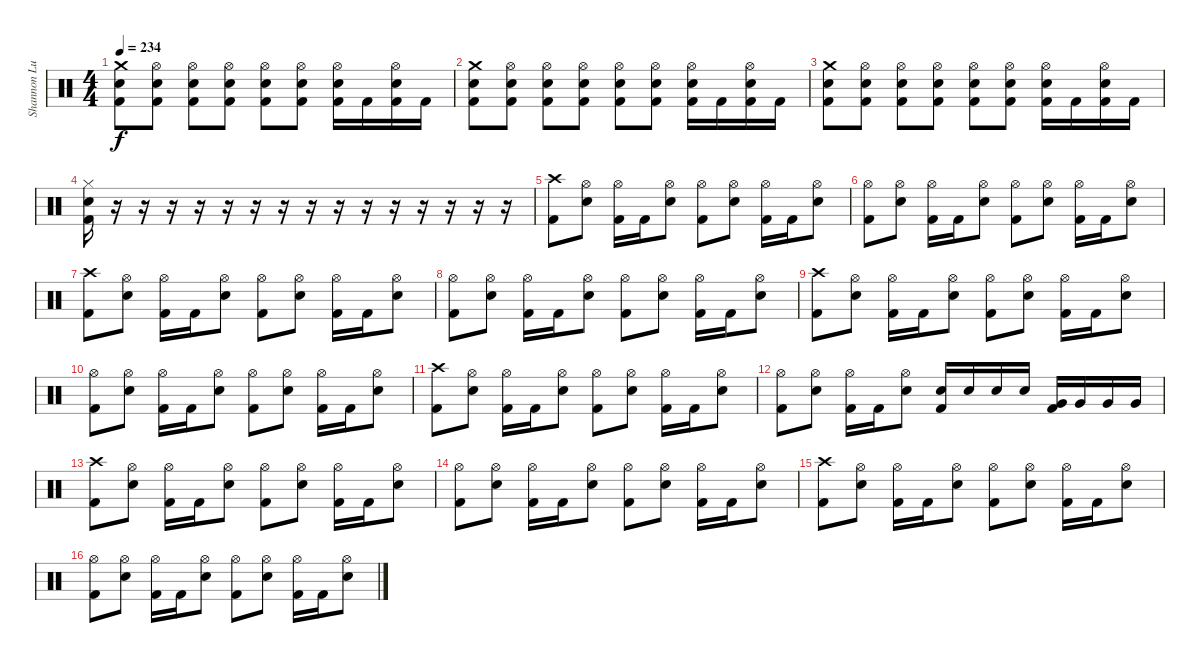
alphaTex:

\track ("Shannon Lucas (Drums)" "Shannon Lu") {instrument percussion}
\staff {score}
\articulation defaults
\ts (4 4)
\tempo 234
\clef neutral
\ks c
("Crash medium (hit)" "Electric Snare (hit)" "Kick (hit) 2").8{dy f} ("Hi-Hat (open)" "Electric Snare (hit)" "Kick (hit) 2").8 ("Hi-Hat (open)" "Electric Snare (hit)" "Kick (hit) 2").8 ("Hi-Hat (open)" "Electric Snare (hit)" "Kick (hit) 2").8 ("Hi-Hat (open)" "Electric Snare (hit)" "Kick (hit) 2").8 ("Hi-Hat (open)" "Electric Snare (hit)" "Kick (hit) 2").8 ("Hi-Hat (open)" "Electric Snare (hit)" "Kick (hit) 2").16 "Kick (hit) 2".16 ("Hi-Hat (open)" "Electric Snare (hit)" "Kick (hit) 2").16 "Kick (hit) 2".16 |
("Crash medium (hit)" "Electric Snare (hit)" "Kick (hit) 2").8 ("Hi-Hat (open)" "Electric Snare (hit)" "Kick (hit) 2").8 ("Hi-Hat (open)" "Electric Snare (hit)" "Kick (hit) 2").8 ("Hi-Hat (open)" "Electric Snare (hit)" "Kick (hit) 2").8 ("Hi-Hat (open)" "Electric Snare (hit)" "Kick (hit) 2").8 ("Hi-Hat (open)" "Electric Snare (hit)" "Kick (hit) 2").8 ("Hi-Hat (open)" "Electric Snare (hit)" "Kick (hit) 2").16 "Kick (hit) 2".16 ("Hi-Hat (open)" "Electric Snare (hit)" "Kick (hit) 2").16 "Kick (hit) 2".16 |
("Crash medium (hit)" "Electric Snare (hit)" "Kick (hit) 2").8 ("Hi-Hat (open)" "Electric Snare (hit)" "Kick (hit) 2").8 ("Hi-Hat (open)" "Electric Snare (hit)" "Kick (hit) 2").8 ("Hi-Hat (open)" "Electric Snare (hit)" "Kick (hit) 2").8 ("Hi-Hat (open)" "Electric Snare (hit)" "Kick (hit) 2").8 ("Hi-Hat (open)" "Electric Snare (hit)" "Kick (hit) 2").8 ("Hi-Hat (open)" "Electric Snare (hit)" "Kick (hit) 2").16 "Kick (hit) 2".16 ("Hi-Hat (open)" "Electric Snare (hit)" "Kick (hit) 2").16 "Kick (hit) 2".16 |
("Hi-Hat (closed)" "Electric Snare (hit)" "Kick (hit) 2").16 r.16 r.16 r.16 r.16 r.16 r.16 r.16 r.16 r.16 r.16 r.16 r.16 r.16 r.16 r.16 |
("Crash high (hit)" "Kick (hit) 2").8 ("Hi-Hat (open)" "Electric Snare (hit)").8 ("Hi-Hat (open)" "Kick (hit) 2").16 "Kick (hit) 2".16 ("Hi-Hat (open)" "Electric Snare (hit)").8 ("Hi-Hat (open)" "Kick (hit) 2").8 ("Hi-Hat (open)" "Electric Snare (hit)").8 ("Hi-Hat (open)" "Kick (hit) 2").16 "Kick (hit) 2".16 ("Hi-Hat (open)" "Electric Snare (hit)").8 |
("Hi-Hat (open)" "Kick (hit) 2").8 ("Hi-Hat (open)" "Electric Snare (hit)").8 ("Hi-Hat (open)" "Kick (hit) 2").16 "Kick (hit) 2".16 ("Hi-Hat (open)" "Electric Snare (hit)").8 ("Hi-Hat (open)" "Kick (hit) 2").8 ("Hi-Hat (open)" "Electric Snare (hit)").8 ("Hi-Hat (open)" "Kick (hit) 2").16 "Kick (hit) 2".16 ("Hi-Hat (open)" "Electric Snare (hit)").8 |
("Crash high (hit)" "Kick (hit) 2").8 ("Hi-Hat (open)" "Electric Snare (hit)").8 ("Hi-Hat (open)" "Kick (hit) 2").16 "Kick (hit) 2".16 ("Hi-Hat (open)" "Electric Snare (hit)").8 ("Hi-Hat (open)" "Kick (hit) 2").8 ("Hi-Hat (open)" "Electric Snare (hit)").8 ("Hi-Hat (open)" "Kick (hit) 2").16 "Kick (hit) 2".16 ("Hi-Hat (open)" "Electric Snare (hit)").8 |
("Hi-Hat (open)" "Kick (hit) 2").8 ("Hi-Hat (open)" "Electric Snare (hit)").8 ("Hi-Hat (open)" "Kick (hit) 2").16 "Kick (hit) 2".16 ("Hi-Hat (open)" "Electric Snare (hit)").8 ("Hi-Hat (open)" "Kick (hit) 2").8 ("Hi-Hat (open)" "Electric Snare (hit)").8 ("Hi-Hat (open)" "Kick (hit) 2").16 "Kick (hit) 2".16 ("Hi-Hat (open)" "Electric Snare (hit)").8 |
("Crash high (hit)" "Kick (hit) 2").8 ("Hi-Hat (open)" "Electric Snare (hit)").8 ("Hi-Hat (open)" "Kick (hit) 2").16 "Kick (hit) 2".16 ("Hi-Hat (open)" "Electric Snare (hit)").8 ("Hi-Hat (open)" "Kick (hit) 2").8 ("Hi-Hat (open)" "Electric Snare (hit)").8 ("Hi-Hat (open)" "Kick (hit) 2").16 "Kick (hit) 2".16 ("Hi-Hat (open)" "Electric Snare (hit)").8 |
("Hi-Hat (open)" "Kick (hit) 2").8 ("Hi-Hat (open)" "Electric Snare (hit)").8 ("Hi-Hat (open)" "Kick (hit) 2").16 "Kick (hit) 2".16 ("Hi-Hat (open)" "Electric Snare (hit)").8 ("Hi-Hat (open)" "Kick (hit) 2").8 ("Hi-Hat (open)" "Electric Snare (hit)").8 ("Hi-Hat (open)" "Kick (hit) 2").16 "Kick (hit) 2".16 ("Hi-Hat (open)" "Electric Snare (hit)").8 |
("Crash high (hit)" "Kick (hit) 2").8 ("Hi-Hat (open)" "Electric Snare (hit)").8 ("Hi-Hat (open)" "Kick (hit) 2").16 "Kick (hit) 2".16 ("Hi-Hat (open)" "Electric Snare (hit)").8 ("Hi-Hat (open)" "Kick (hit) 2").8 ("Hi-Hat (open)" "Electric Snare (hit)").8 ("Hi-Hat (open)" "Kick (hit) 2").16 "Kick (hit) 2".16 ("Hi-Hat (open)" "Electric Snare (hit)").8 |
("Hi-Hat (open)" "Kick (hit) 2").8 ("Hi-Hat (open)" "Electric Snare (hit)").8 ("Hi-Hat (open)" "Kick (hit) 2").16 "Kick (hit) 2".16 ("Hi-Hat (open)" "Electric Snare (hit)").8 ("Electric Snare (hit)" "Kick (hit) 2").16 "Electric Snare (hit)".16 "Electric Snare (hit)".16 "Electric Snare (hit)".16 ("Very Low Tom (hit)" "Kick (hit) 2").16 "Very Low Tom (hit)".16 "Very Low Tom (hit)".16 "Very Low Tom (hit)".16 |
("Crash high (hit)" "Kick (hit) 2").8 ("Hi-Hat (open)" "Electric Snare (hit)").8 ("Hi-Hat (open)" "Kick (hit) 2").16 "Kick (hit) 2".16 ("Hi-Hat (open)" "Electric Snare (hit)").8 ("Hi-Hat (open)" "Kick (hit) 2").8 ("Hi-Hat (open)" "Electric Snare (hit)").8 ("Hi-Hat (open)" "Kick (hit) 2").16 "Kick (hit) 2".16 ("Hi-Hat (open)" "Electric Snare (hit)").8 |
("Hi-Hat (open)" "Kick (hit) 2").8 ("Hi-Hat (open)" "Electric Snare (hit)").8 ("Hi-Hat (open)" "Kick (hit) 2").16 "Kick (hit) 2".16 ("Hi-Hat (open)" "Electric Snare (hit)").8 ("Hi-Hat (open)" "Kick (hit) 2").8 ("Hi-Hat (open)" "Electric Snare (hit)").8 ("Hi-Hat (open)" "Kick (hit) 2").16 "Kick (hit) 2".16 ("Hi-Hat (open)" "Electric Snare (hit)").8 |
("Crash high (hit)" "Kick (hit) 2").8 ("Hi-Hat (open)" "Electric Snare (hit)").8 ("Hi-Hat (open)" "Kick (hit) 2").16 "Kick (hit) 2".16 ("Hi-Hat (open)" "Electric Snare (hit)").8 ("Hi-Hat (open)" "Kick (hit) 2").8 ("Hi-Hat (open)" "Electric Snare (hit)").8 ("Hi-Hat (open)" "Kick (hit) 2").16 "Kick (hit) 2".16 ("Hi-Hat (open)" "Electric Snare (hit)").8 |
("Hi-Hat (open)" "Kick (hit) 2").8 ("Hi-Hat (open)" "Electric Snare (hit)").8 ("Hi-Hat (open)" "Kick (hit) 2").16 "Kick (hit) 2".16 ("Hi-Hat (open)" "Electric Snare (hit)").8 ("Hi-Hat (open)" "Kick (hit) 2").8 ("Hi-Hat (open)" "Electric Snare (hit)").8 ("Hi-Hat (open)" "Kick (hit) 2").16 "Kick (hit) 2".16 ("Hi-Hat (open)" "Electric Snare (hit)").8
